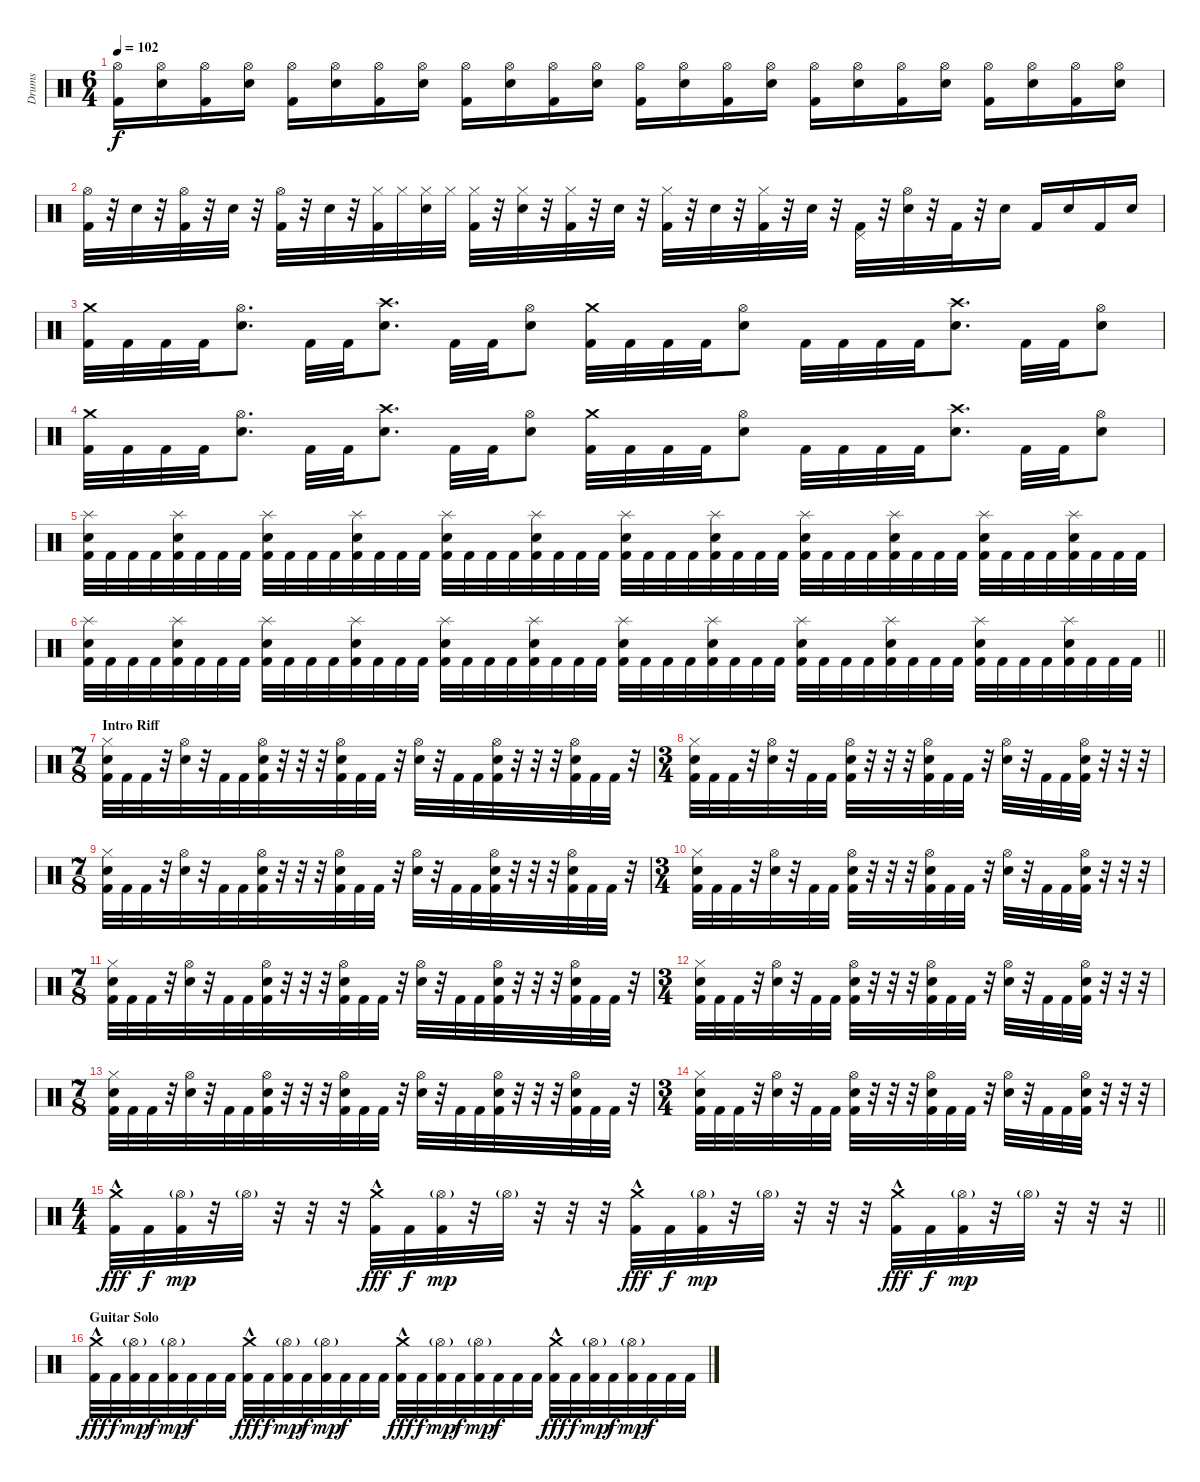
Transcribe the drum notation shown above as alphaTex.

\track ("Drums" "Drums") {instrument percussion}
\staff {score}
\articulation defaults
\ts (6 4)
\tempo 102
\clef neutral
\ks c
("Hi-Hat (open)" "Kick (hit) 2").16{dy f} ("Hi-Hat (open)" "Electric Snare (hit)").16 ("Hi-Hat (open)" "Kick (hit) 2").16 ("Hi-Hat (open)" "Electric Snare (hit)").16 ("Hi-Hat (open)" "Kick (hit) 2").16 ("Hi-Hat (open)" "Electric Snare (hit)").16 ("Hi-Hat (open)" "Kick (hit) 2").16 ("Hi-Hat (open)" "Electric Snare (hit)").16 ("Hi-Hat (open)" "Kick (hit) 2").16 ("Hi-Hat (open)" "Electric Snare (hit)").16 ("Hi-Hat (open)" "Kick (hit) 2").16 ("Hi-Hat (open)" "Electric Snare (hit)").16 ("Hi-Hat (open)" "Kick (hit) 2").16 ("Hi-Hat (open)" "Electric Snare (hit)").16 ("Hi-Hat (open)" "Kick (hit) 2").16 ("Hi-Hat (open)" "Electric Snare (hit)").16 ("Hi-Hat (open)" "Kick (hit) 2").16 ("Hi-Hat (open)" "Electric Snare (hit)").16 ("Hi-Hat (open)" "Kick (hit) 2").16 ("Hi-Hat (open)" "Electric Snare (hit)").16 ("Hi-Hat (open)" "Kick (hit) 2").16 ("Hi-Hat (open)" "Electric Snare (hit)").16 ("Hi-Hat (open)" "Kick (hit) 2").16 ("Hi-Hat (open)" "Electric Snare (hit)").16 |
("Hi-Hat (open)" "Kick (hit) 2").32 r.32 "Electric Snare (hit)".32 r.32 ("Hi-Hat (open)" "Kick (hit) 2").32 r.32 "Electric Snare (hit)".32 r.32 ("Hi-Hat (open)" "Kick (hit) 2").32 r.32 "Electric Snare (hit)".32 r.32 ("Hi-Hat (closed)" "Kick (hit) 2").32 "Hi-Hat (closed)".32 ("Hi-Hat (closed)" "Electric Snare (hit)").32 "Hi-Hat (closed)".32 ("Hi-Hat (closed)" "Kick (hit) 2").32 r.32 ("Hi-Hat (closed)" "Electric Snare (hit)").32 r.32 ("Hi-Hat (closed)" "Kick (hit) 2").32 r.32 "Electric Snare (hit)".32 r.32 ("Hi-Hat (closed)" "Kick (hit) 2").32 r.32 "Electric Snare (hit)".32 r.32 ("Hi-Hat (closed)" "Kick (hit) 2").32 r.32 "Electric Snare (hit)".32 r.32 ("Pedal Hi-Hat (hit)" "Kick (hit) 2").32 r.32 ("Hi-Hat (open)" "Electric Snare (hit)").32 r.32 "Kick (hit) 2".32 r.32 "Electric Snare (hit)".16 "Kick (hit) 2".16 "Electric Snare (hit)".16 "Kick (hit) 2".16 "Electric Snare (hit)".16 |
("Crash medium (hit)" "Kick (hit) 2").32 "Kick (hit) 2".32 "Kick (hit) 2".32 "Kick (hit) 2".32 ("Hi-Hat (open)" "Electric Snare (hit)").8{d} "Kick (hit) 2".32 "Kick (hit) 2".32 ("Crash high (hit)" "Electric Snare (hit)").8{d} "Kick (hit) 2".32 "Kick (hit) 2".32 ("Hi-Hat (open)" "Electric Snare (hit)").8 ("Crash medium (hit)" "Kick (hit) 2").32 "Kick (hit) 2".32 "Kick (hit) 2".32 "Kick (hit) 2".32 ("Hi-Hat (open)" "Electric Snare (hit)").8 "Kick (hit) 2".32 "Kick (hit) 2".32 "Kick (hit) 2".32 "Kick (hit) 2".32 ("Crash high (hit)" "Electric Snare (hit)").8{d} "Kick (hit) 2".32 "Kick (hit) 2".32 ("Hi-Hat (open)" "Electric Snare (hit)").8 |
("Crash medium (hit)" "Kick (hit) 2").32 "Kick (hit) 2".32 "Kick (hit) 2".32 "Kick (hit) 2".32 ("Hi-Hat (open)" "Electric Snare (hit)").8{d} "Kick (hit) 2".32 "Kick (hit) 2".32 ("Crash high (hit)" "Electric Snare (hit)").8{d} "Kick (hit) 2".32 "Kick (hit) 2".32 ("Hi-Hat (open)" "Electric Snare (hit)").8 ("Crash medium (hit)" "Kick (hit) 2").32 "Kick (hit) 2".32 "Kick (hit) 2".32 "Kick (hit) 2".32 ("Hi-Hat (open)" "Electric Snare (hit)").8 "Kick (hit) 2".32 "Kick (hit) 2".32 "Kick (hit) 2".32 "Kick (hit) 2".32 ("Crash high (hit)" "Electric Snare (hit)").8{d} "Kick (hit) 2".32 "Kick (hit) 2".32 ("Hi-Hat (open)" "Electric Snare (hit)").8 |
("Splash (hit)" "Electric Snare (hit)" "Kick (hit) 2").32 "Kick (hit) 2".32 "Kick (hit) 2".32 "Kick (hit) 2".32 ("Splash (hit)" "Electric Snare (hit)" "Kick (hit) 2").32 "Kick (hit) 2".32 "Kick (hit) 2".32 "Kick (hit) 2".32 ("Splash (hit)" "Electric Snare (hit)" "Kick (hit) 2").32 "Kick (hit) 2".32 "Kick (hit) 2".32 "Kick (hit) 2".32 ("Splash (hit)" "Electric Snare (hit)" "Kick (hit) 2").32 "Kick (hit) 2".32 "Kick (hit) 2".32 "Kick (hit) 2".32 ("Splash (hit)" "Electric Snare (hit)" "Kick (hit) 2").32 "Kick (hit) 2".32 "Kick (hit) 2".32 "Kick (hit) 2".32 ("Splash (hit)" "Electric Snare (hit)" "Kick (hit) 2").32 "Kick (hit) 2".32 "Kick (hit) 2".32 "Kick (hit) 2".32 ("Splash (hit)" "Electric Snare (hit)" "Kick (hit) 2").32 "Kick (hit) 2".32 "Kick (hit) 2".32 "Kick (hit) 2".32 ("Splash (hit)" "Electric Snare (hit)" "Kick (hit) 2").32 "Kick (hit) 2".32 "Kick (hit) 2".32 "Kick (hit) 2".32 ("Splash (hit)" "Electric Snare (hit)" "Kick (hit) 2").32 "Kick (hit) 2".32 "Kick (hit) 2".32 "Kick (hit) 2".32 ("Splash (hit)" "Electric Snare (hit)" "Kick (hit) 2").32 "Kick (hit) 2".32 "Kick (hit) 2".32 "Kick (hit) 2".32 ("Splash (hit)" "Electric Snare (hit)" "Kick (hit) 2").32 "Kick (hit) 2".32 "Kick (hit) 2".32 "Kick (hit) 2".32 ("Splash (hit)" "Electric Snare (hit)" "Kick (hit) 2").32 "Kick (hit) 2".32 "Kick (hit) 2".32 "Kick (hit) 2".32 |
\barLineRight lightlight
("Splash (hit)" "Electric Snare (hit)" "Kick (hit) 2").32 "Kick (hit) 2".32 "Kick (hit) 2".32 "Kick (hit) 2".32 ("Splash (hit)" "Electric Snare (hit)" "Kick (hit) 2").32 "Kick (hit) 2".32 "Kick (hit) 2".32 "Kick (hit) 2".32 ("Splash (hit)" "Electric Snare (hit)" "Kick (hit) 2").32 "Kick (hit) 2".32 "Kick (hit) 2".32 "Kick (hit) 2".32 ("Splash (hit)" "Electric Snare (hit)" "Kick (hit) 2").32 "Kick (hit) 2".32 "Kick (hit) 2".32 "Kick (hit) 2".32 ("Splash (hit)" "Electric Snare (hit)" "Kick (hit) 2").32 "Kick (hit) 2".32 "Kick (hit) 2".32 "Kick (hit) 2".32 ("Splash (hit)" "Electric Snare (hit)" "Kick (hit) 2").32 "Kick (hit) 2".32 "Kick (hit) 2".32 "Kick (hit) 2".32 ("Splash (hit)" "Electric Snare (hit)" "Kick (hit) 2").32 "Kick (hit) 2".32 "Kick (hit) 2".32 "Kick (hit) 2".32 ("Splash (hit)" "Electric Snare (hit)" "Kick (hit) 2").32 "Kick (hit) 2".32 "Kick (hit) 2".32 "Kick (hit) 2".32 ("Splash (hit)" "Electric Snare (hit)" "Kick (hit) 2").32 "Kick (hit) 2".32 "Kick (hit) 2".32 "Kick (hit) 2".32 ("Splash (hit)" "Electric Snare (hit)" "Kick (hit) 2").32 "Kick (hit) 2".32 "Kick (hit) 2".32 "Kick (hit) 2".32 ("Splash (hit)" "Electric Snare (hit)" "Kick (hit) 2").32 "Kick (hit) 2".32 "Kick (hit) 2".32 "Kick (hit) 2".32 ("Splash (hit)" "Electric Snare (hit)" "Kick (hit) 2").32 "Kick (hit) 2".32 "Kick (hit) 2".32 "Kick (hit) 2".32 |
\ts (7 8)
\section ("" "Intro Riff")
("Hi-Hat (closed)" "Electric Snare (hit)" "Kick (hit) 2").32 "Kick (hit) 2".32 "Kick (hit) 2".32 r.32 ("Hi-Hat (open)" "Electric Snare (hit)").32 r.32 "Kick (hit) 2".32 "Kick (hit) 2".32 ("Hi-Hat (open)" "Electric Snare (hit)" "Kick (hit) 2").32 r.32 r.32 r.32 ("Hi-Hat (open)" "Electric Snare (hit)" "Kick (hit) 2").32 "Kick (hit) 2".32 "Kick (hit) 2".32 r.32 ("Hi-Hat (open)" "Electric Snare (hit)").32 r.32 "Kick (hit) 2".32 "Kick (hit) 2".32 ("Hi-Hat (open)" "Electric Snare (hit)" "Kick (hit) 2").32 r.32 r.32 r.32 ("Hi-Hat (open)" "Electric Snare (hit)" "Kick (hit) 2").32 "Kick (hit) 2".32 "Kick (hit) 2".32 r.32 |
\ts (3 4)
("Hi-Hat (closed)" "Electric Snare (hit)" "Kick (hit) 2").32 "Kick (hit) 2".32 "Kick (hit) 2".32 r.32 ("Hi-Hat (open)" "Electric Snare (hit)").32 r.32 "Kick (hit) 2".32 "Kick (hit) 2".32 ("Hi-Hat (open)" "Electric Snare (hit)" "Kick (hit) 2").32 r.32 r.32 r.32 ("Hi-Hat (open)" "Electric Snare (hit)" "Kick (hit) 2").32 "Kick (hit) 2".32 "Kick (hit) 2".32 r.32 ("Hi-Hat (open)" "Electric Snare (hit)").32 r.32 "Kick (hit) 2".32 "Kick (hit) 2".32 ("Hi-Hat (open)" "Electric Snare (hit)" "Kick (hit) 2").32 r.32 r.32 r.32 |
\ts (7 8)
("Hi-Hat (closed)" "Electric Snare (hit)" "Kick (hit) 2").32 "Kick (hit) 2".32 "Kick (hit) 2".32 r.32 ("Hi-Hat (open)" "Electric Snare (hit)").32 r.32 "Kick (hit) 2".32 "Kick (hit) 2".32 ("Hi-Hat (open)" "Electric Snare (hit)" "Kick (hit) 2").32 r.32 r.32 r.32 ("Hi-Hat (open)" "Electric Snare (hit)" "Kick (hit) 2").32 "Kick (hit) 2".32 "Kick (hit) 2".32 r.32 ("Hi-Hat (open)" "Electric Snare (hit)").32 r.32 "Kick (hit) 2".32 "Kick (hit) 2".32 ("Hi-Hat (open)" "Electric Snare (hit)" "Kick (hit) 2").32 r.32 r.32 r.32 ("Hi-Hat (open)" "Electric Snare (hit)" "Kick (hit) 2").32 "Kick (hit) 2".32 "Kick (hit) 2".32 r.32 |
\ts (3 4)
("Hi-Hat (closed)" "Electric Snare (hit)" "Kick (hit) 2").32 "Kick (hit) 2".32 "Kick (hit) 2".32 r.32 ("Hi-Hat (open)" "Electric Snare (hit)").32 r.32 "Kick (hit) 2".32 "Kick (hit) 2".32 ("Hi-Hat (open)" "Electric Snare (hit)" "Kick (hit) 2").32 r.32 r.32 r.32 ("Hi-Hat (open)" "Electric Snare (hit)" "Kick (hit) 2").32 "Kick (hit) 2".32 "Kick (hit) 2".32 r.32 ("Hi-Hat (open)" "Electric Snare (hit)").32 r.32 "Kick (hit) 2".32 "Kick (hit) 2".32 ("Hi-Hat (open)" "Electric Snare (hit)" "Kick (hit) 2").32 r.32 r.32 r.32 |
\ts (7 8)
("Hi-Hat (closed)" "Electric Snare (hit)" "Kick (hit) 2").32 "Kick (hit) 2".32 "Kick (hit) 2".32 r.32 ("Hi-Hat (open)" "Electric Snare (hit)").32 r.32 "Kick (hit) 2".32 "Kick (hit) 2".32 ("Hi-Hat (open)" "Electric Snare (hit)" "Kick (hit) 2").32 r.32 r.32 r.32 ("Hi-Hat (open)" "Electric Snare (hit)" "Kick (hit) 2").32 "Kick (hit) 2".32 "Kick (hit) 2".32 r.32 ("Hi-Hat (open)" "Electric Snare (hit)").32 r.32 "Kick (hit) 2".32 "Kick (hit) 2".32 ("Hi-Hat (open)" "Electric Snare (hit)" "Kick (hit) 2").32 r.32 r.32 r.32 ("Hi-Hat (open)" "Electric Snare (hit)" "Kick (hit) 2").32 "Kick (hit) 2".32 "Kick (hit) 2".32 r.32 |
\ts (3 4)
("Hi-Hat (closed)" "Electric Snare (hit)" "Kick (hit) 2").32 "Kick (hit) 2".32 "Kick (hit) 2".32 r.32 ("Hi-Hat (open)" "Electric Snare (hit)").32 r.32 "Kick (hit) 2".32 "Kick (hit) 2".32 ("Hi-Hat (open)" "Electric Snare (hit)" "Kick (hit) 2").32 r.32 r.32 r.32 ("Hi-Hat (open)" "Electric Snare (hit)" "Kick (hit) 2").32 "Kick (hit) 2".32 "Kick (hit) 2".32 r.32 ("Hi-Hat (open)" "Electric Snare (hit)").32 r.32 "Kick (hit) 2".32 "Kick (hit) 2".32 ("Hi-Hat (open)" "Electric Snare (hit)" "Kick (hit) 2").32 r.32 r.32 r.32 |
\ts (7 8)
("Hi-Hat (closed)" "Electric Snare (hit)" "Kick (hit) 2").32 "Kick (hit) 2".32 "Kick (hit) 2".32 r.32 ("Hi-Hat (open)" "Electric Snare (hit)").32 r.32 "Kick (hit) 2".32 "Kick (hit) 2".32 ("Hi-Hat (open)" "Electric Snare (hit)" "Kick (hit) 2").32 r.32 r.32 r.32 ("Hi-Hat (open)" "Electric Snare (hit)" "Kick (hit) 2").32 "Kick (hit) 2".32 "Kick (hit) 2".32 r.32 ("Hi-Hat (open)" "Electric Snare (hit)").32 r.32 "Kick (hit) 2".32 "Kick (hit) 2".32 ("Hi-Hat (open)" "Electric Snare (hit)" "Kick (hit) 2").32 r.32 r.32 r.32 ("Hi-Hat (open)" "Electric Snare (hit)" "Kick (hit) 2").32 "Kick (hit) 2".32 "Kick (hit) 2".32 r.32 |
\ts (3 4)
("Hi-Hat (closed)" "Electric Snare (hit)" "Kick (hit) 2").32 "Kick (hit) 2".32 "Kick (hit) 2".32 r.32 ("Hi-Hat (open)" "Electric Snare (hit)").32 r.32 "Kick (hit) 2".32 "Kick (hit) 2".32 ("Hi-Hat (open)" "Electric Snare (hit)" "Kick (hit) 2").32 r.32 r.32 r.32 ("Hi-Hat (open)" "Electric Snare (hit)" "Kick (hit) 2").32 "Kick (hit) 2".32 "Kick (hit) 2".32 r.32 ("Hi-Hat (open)" "Electric Snare (hit)").32 r.32 "Kick (hit) 2".32 "Kick (hit) 2".32 ("Hi-Hat (open)" "Electric Snare (hit)" "Kick (hit) 2").32 r.32 r.32 r.32 |
\ts (4 4)
\barLineRight lightlight
("Crash medium (hit)"{hac} "Kick (hit) 2").32{dy fff} "Kick (hit) 2".32{dy f} ("Hi-Hat (open)"{g} "Kick (hit) 2").32{dy mp} r.32 "Hi-Hat (open)"{g}.32 r.32 r.32 r.32 ("Crash medium (hit)"{hac} "Kick (hit) 2").32{dy fff} "Kick (hit) 2".32{dy f} ("Hi-Hat (open)"{g} "Kick (hit) 2").32{dy mp} r.32 "Hi-Hat (open)"{g}.32 r.32 r.32 r.32 ("Crash medium (hit)"{hac} "Kick (hit) 2").32{dy fff} "Kick (hit) 2".32{dy f} ("Hi-Hat (open)"{g} "Kick (hit) 2").32{dy mp} r.32 "Hi-Hat (open)"{g}.32 r.32 r.32 r.32 ("Crash medium (hit)"{hac} "Kick (hit) 2").32{dy fff} "Kick (hit) 2".32{dy f} ("Hi-Hat (open)"{g} "Kick (hit) 2").32{dy mp} r.32 "Hi-Hat (open)"{g}.32 r.32 r.32 r.32 |
\section ("" "Guitar Solo")
("Crash medium (hit)"{hac} "Kick (hit) 2").32{dy fff volume 12} "Kick (hit) 2".32{dy f} ("Hi-Hat (open)"{g} "Kick (hit) 2").32{dy mp} "Kick (hit) 2".32{dy f} ("Hi-Hat (open)"{g} "Kick (hit) 2").32{dy mp} "Kick (hit) 2".32{dy f} "Kick (hit) 2".32 "Kick (hit) 2".32 ("Crash medium (hit)"{hac} "Kick (hit) 2").32{dy fff} "Kick (hit) 2".32{dy f} ("Hi-Hat (open)"{g} "Kick (hit) 2").32{dy mp} "Kick (hit) 2".32{dy f} ("Hi-Hat (open)"{g} "Kick (hit) 2").32{dy mp} "Kick (hit) 2".32{dy f} "Kick (hit) 2".32 "Kick (hit) 2".32 ("Crash medium (hit)"{hac} "Kick (hit) 2").32{dy fff} "Kick (hit) 2".32{dy f} ("Hi-Hat (open)"{g} "Kick (hit) 2").32{dy mp} "Kick (hit) 2".32{dy f} ("Hi-Hat (open)"{g} "Kick (hit) 2").32{dy mp} "Kick (hit) 2".32{dy f} "Kick (hit) 2".32 "Kick (hit) 2".32 ("Crash medium (hit)"{hac} "Kick (hit) 2").32{dy fff} "Kick (hit) 2".32{dy f} ("Hi-Hat (open)"{g} "Kick (hit) 2").32{dy mp} "Kick (hit) 2".32{dy f} ("Hi-Hat (open)"{g} "Kick (hit) 2").32{dy mp} "Kick (hit) 2".32{dy f} "Kick (hit) 2".32 "Kick (hit) 2".32
